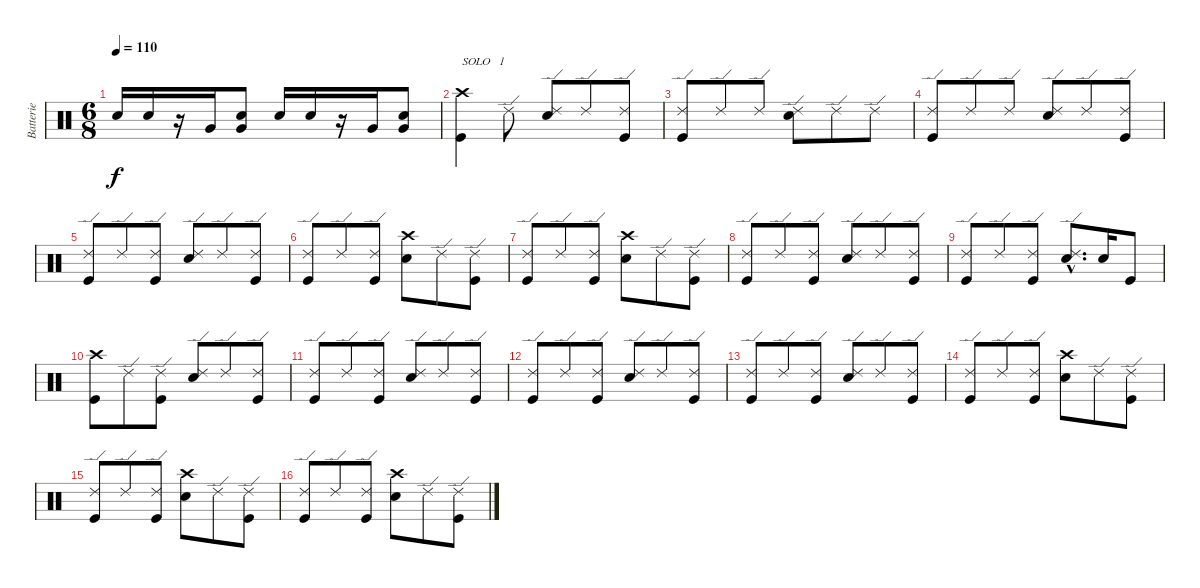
\track ("Batterie" "Batterie") {instrument percussion}
\staff {score}
\articulation defaults
\ts (6 8)
\tempo 110
\clef neutral
\ks c "Snare (hit) 2".16{dy f} "Snare (hit) 2".16
r.16 "Very Low Tom (hit)".16 ("Snare (hit) 2" "Very Low Tom (hit)").8 "Snare (hit) 2".16 "Snare (hit) 2".16 r.16 "Very Low Tom (hit)".16 ("Snare (hit) 2" "Very Low Tom (hit)").8 |
("Crash high (hit)" "Kick (hit)").4{txt "SOLO   1"} "Ride (edge) 2".8 ("Ride (edge) 2" "Snare (hit) 2").8 "Ride (edge) 2".8 ("Ride (edge) 2" "Kick (hit)").8 |
("Ride (edge) 2" "Kick (hit)").8 "Ride (edge) 2".8 "Ride (edge) 2".8 ("Ride (edge) 2" "Snare (hit) 2").8 "Ride (edge) 2".8 "Ride (edge) 2".8 |
("Ride (edge) 2" "Kick (hit)").8 "Ride (edge) 2".8 "Ride (edge) 2".8 ("Ride (edge) 2" "Snare (hit) 2").8 "Ride (edge) 2".8 ("Ride (edge) 2" "Kick (hit)").8 |
("Ride (edge) 2" "Kick (hit)").8 "Ride (edge) 2".8 ("Ride (edge) 2" "Kick (hit)").8 ("Ride (edge) 2" "Snare (hit) 2").8 "Ride (edge) 2".8 ("Ride (edge) 2" "Kick (hit)").8 |
("Ride (edge) 2" "Kick (hit)").8 "Ride (edge) 2".8 ("Ride (edge) 2" "Kick (hit)").8 ("Crash high (hit)" "Snare (hit) 2").8 "Ride (edge) 2".8 ("Ride (edge) 2" "Kick (hit)").8 |
("Ride (edge) 2" "Kick (hit)").8 "Ride (edge) 2".8 ("Ride (edge) 2" "Kick (hit)").8 ("Crash high (hit)" "Snare (hit) 2").8 "Ride (edge) 2".8 ("Ride (edge) 2" "Kick (hit)").8 |
("Ride (edge) 2" "Kick (hit)").8 "Ride (edge) 2".8 ("Ride (edge) 2" "Kick (hit)").8 ("Ride (edge) 2" "Snare (hit) 2").8 "Ride (edge) 2".8 ("Ride (edge) 2" "Kick (hit)").8 |
("Ride (edge) 2" "Kick (hit)").8 "Ride (edge) 2".8 ("Ride (edge) 2" "Kick (hit)").8 ("Ride (edge) 2"{hac} "Snare (hit) 2"{hac}).8{d} "Snare (hit) 2".16 "Kick (hit)".8 |
("Crash high (hit)" "Kick (hit)").8 "Ride (edge) 2".8 ("Ride (edge) 2" "Kick (hit)").8 ("Ride (edge) 2" "Snare (hit) 2").8 "Ride (edge) 2".8 ("Ride (edge) 2" "Kick (hit)").8 |
("Ride (edge) 2" "Kick (hit)").8 "Ride (edge) 2".8 ("Ride (edge) 2" "Kick (hit)").8 ("Ride (edge) 2" "Snare (hit) 2").8 "Ride (edge) 2".8 ("Ride (edge) 2" "Kick (hit)").8 |
("Ride (edge) 2" "Kick (hit)").8 "Ride (edge) 2".8 ("Ride (edge) 2" "Kick (hit)").8 ("Ride (edge) 2" "Snare (hit) 2").8 "Ride (edge) 2".8 ("Ride (edge) 2" "Kick (hit)").8 |
("Ride (edge) 2" "Kick (hit)").8 "Ride (edge) 2".8 ("Ride (edge) 2" "Kick (hit)").8 ("Ride (edge) 2" "Snare (hit) 2").8 "Ride (edge) 2".8 ("Ride (edge) 2" "Kick (hit)").8 |
("Ride (edge) 2" "Kick (hit)").8 "Ride (edge) 2".8 ("Ride (edge) 2" "Kick (hit)").8 ("Crash high (hit)" "Snare (hit) 2").8 "Ride (edge) 2".8 ("Ride (edge) 2" "Kick (hit)").8 |
("Ride (edge) 2" "Kick (hit)").8 "Ride (edge) 2".8 ("Ride (edge) 2" "Kick (hit)").8 ("Crash high (hit)" "Snare (hit) 2").8 "Ride (edge) 2".8 ("Ride (edge) 2" "Kick (hit)").8 |
("Ride (edge) 2" "Kick (hit)").8 "Ride (edge) 2".8 ("Ride (edge) 2" "Kick (hit)").8 ("Crash high (hit)" "Snare (hit) 2").8 "Ride (edge) 2".8 ("Ride (edge) 2" "Kick (hit)").8
